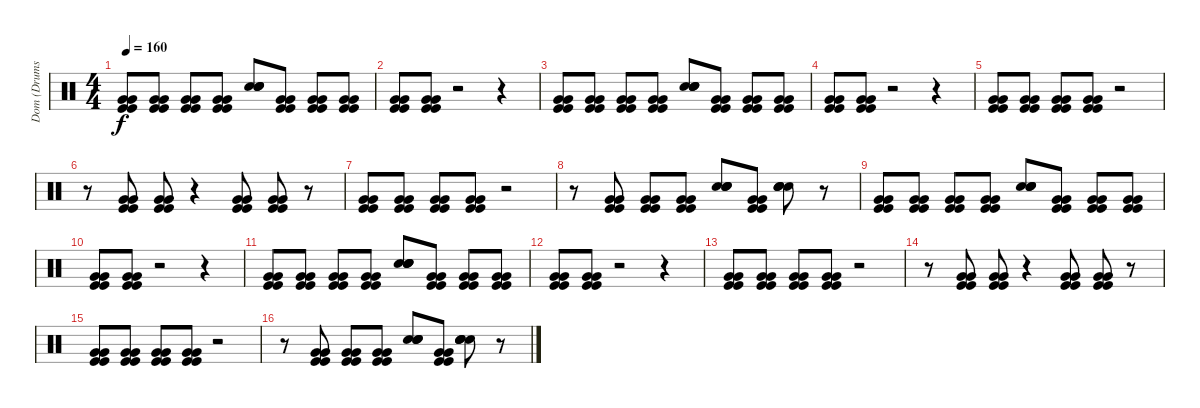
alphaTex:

\track ("Dom (Drums)" "Dom (Drums") {instrument percussion}
\staff {score}
\articulation defaults
\ts (4 4)
\tempo 160
\clef neutral
\ks c
("Very Low Tom (hit)" "Very Low Tom (hit)" "Kick (hit)" "Kick (hit)").8{dy f volume 10} ("Very Low Tom (hit)" "Very Low Tom (hit)" "Kick (hit)" "Kick (hit)").8 ("Very Low Tom (hit)" "Very Low Tom (hit)" "Kick (hit)" "Kick (hit)").8 ("Very Low Tom (hit)" "Very Low Tom (hit)" "Kick (hit)" "Kick (hit)").8 ("Snare (hit) 2" "Snare (hit) 2" "Snare (hit) 2" "Snare (hit) 2").8 ("Very Low Tom (hit)" "Very Low Tom (hit)" "Kick (hit)" "Kick (hit)").8 ("Very Low Tom (hit)" "Very Low Tom (hit)" "Kick (hit)" "Kick (hit)").8 ("Very Low Tom (hit)" "Very Low Tom (hit)" "Kick (hit)" "Kick (hit)").8 |
("Very Low Tom (hit)" "Very Low Tom (hit)" "Kick (hit)" "Kick (hit)").8 ("Very Low Tom (hit)" "Very Low Tom (hit)" "Kick (hit)" "Kick (hit)").8 r.2 r.4 |
("Very Low Tom (hit)" "Very Low Tom (hit)" "Kick (hit)" "Kick (hit)").8 ("Very Low Tom (hit)" "Very Low Tom (hit)" "Kick (hit)" "Kick (hit)").8 ("Very Low Tom (hit)" "Very Low Tom (hit)" "Kick (hit)" "Kick (hit)").8 ("Very Low Tom (hit)" "Very Low Tom (hit)" "Kick (hit)" "Kick (hit)").8 ("Snare (hit) 2" "Snare (hit) 2" "Snare (hit) 2" "Snare (hit) 2").8 ("Very Low Tom (hit)" "Very Low Tom (hit)" "Kick (hit)" "Kick (hit)").8 ("Very Low Tom (hit)" "Very Low Tom (hit)" "Kick (hit)" "Kick (hit)").8 ("Very Low Tom (hit)" "Very Low Tom (hit)" "Kick (hit)" "Kick (hit)").8 |
("Very Low Tom (hit)" "Very Low Tom (hit)" "Kick (hit)" "Kick (hit)").8 ("Very Low Tom (hit)" "Very Low Tom (hit)" "Kick (hit)" "Kick (hit)").8 r.2 r.4 |
("Very Low Tom (hit)" "Very Low Tom (hit)" "Kick (hit)" "Kick (hit)").8 ("Very Low Tom (hit)" "Very Low Tom (hit)" "Kick (hit)" "Kick (hit)").8 ("Very Low Tom (hit)" "Very Low Tom (hit)" "Kick (hit)" "Kick (hit)").8 ("Very Low Tom (hit)" "Very Low Tom (hit)" "Kick (hit)" "Kick (hit)").8 r.2 |
r.8 ("Very Low Tom (hit)" "Very Low Tom (hit)" "Kick (hit)" "Kick (hit)").8 ("Very Low Tom (hit)" "Very Low Tom (hit)" "Kick (hit)" "Kick (hit)").8 r.4 ("Very Low Tom (hit)" "Very Low Tom (hit)" "Kick (hit)" "Kick (hit)").8 ("Very Low Tom (hit)" "Very Low Tom (hit)" "Kick (hit)" "Kick (hit)").8 r.8 |
("Very Low Tom (hit)" "Very Low Tom (hit)" "Kick (hit)" "Kick (hit)").8 ("Very Low Tom (hit)" "Very Low Tom (hit)" "Kick (hit)" "Kick (hit)").8 ("Very Low Tom (hit)" "Very Low Tom (hit)" "Kick (hit)" "Kick (hit)").8 ("Very Low Tom (hit)" "Very Low Tom (hit)" "Kick (hit)" "Kick (hit)").8 r.2 |
r.8 ("Very Low Tom (hit)" "Very Low Tom (hit)" "Kick (hit)" "Kick (hit)").8 ("Very Low Tom (hit)" "Very Low Tom (hit)" "Kick (hit)" "Kick (hit)").8 ("Very Low Tom (hit)" "Very Low Tom (hit)" "Kick (hit)" "Kick (hit)").8 ("Snare (hit) 2" "Snare (hit) 2" "Snare (hit) 2" "Snare (hit) 2").8 ("Very Low Tom (hit)" "Very Low Tom (hit)" "Kick (hit)" "Kick (hit)").8 ("Snare (hit) 2" "Snare (hit) 2" "Snare (hit) 2" "Snare (hit) 2").8 r.8 |
("Very Low Tom (hit)" "Very Low Tom (hit)" "Kick (hit)" "Kick (hit)").8{volume 10} ("Very Low Tom (hit)" "Very Low Tom (hit)" "Kick (hit)" "Kick (hit)").8 ("Very Low Tom (hit)" "Very Low Tom (hit)" "Kick (hit)" "Kick (hit)").8 ("Very Low Tom (hit)" "Very Low Tom (hit)" "Kick (hit)" "Kick (hit)").8 ("Snare (hit) 2" "Snare (hit) 2" "Snare (hit) 2" "Snare (hit) 2").8 ("Very Low Tom (hit)" "Very Low Tom (hit)" "Kick (hit)" "Kick (hit)").8 ("Very Low Tom (hit)" "Very Low Tom (hit)" "Kick (hit)" "Kick (hit)").8 ("Very Low Tom (hit)" "Very Low Tom (hit)" "Kick (hit)" "Kick (hit)").8 |
("Very Low Tom (hit)" "Very Low Tom (hit)" "Kick (hit)" "Kick (hit)").8 ("Very Low Tom (hit)" "Very Low Tom (hit)" "Kick (hit)" "Kick (hit)").8 r.2 r.4 |
("Very Low Tom (hit)" "Very Low Tom (hit)" "Kick (hit)" "Kick (hit)").8 ("Very Low Tom (hit)" "Very Low Tom (hit)" "Kick (hit)" "Kick (hit)").8 ("Very Low Tom (hit)" "Very Low Tom (hit)" "Kick (hit)" "Kick (hit)").8 ("Very Low Tom (hit)" "Very Low Tom (hit)" "Kick (hit)" "Kick (hit)").8 ("Snare (hit) 2" "Snare (hit) 2" "Snare (hit) 2" "Snare (hit) 2").8 ("Very Low Tom (hit)" "Very Low Tom (hit)" "Kick (hit)" "Kick (hit)").8 ("Very Low Tom (hit)" "Very Low Tom (hit)" "Kick (hit)" "Kick (hit)").8 ("Very Low Tom (hit)" "Very Low Tom (hit)" "Kick (hit)" "Kick (hit)").8 |
("Very Low Tom (hit)" "Very Low Tom (hit)" "Kick (hit)" "Kick (hit)").8 ("Very Low Tom (hit)" "Very Low Tom (hit)" "Kick (hit)" "Kick (hit)").8 r.2 r.4 |
("Very Low Tom (hit)" "Very Low Tom (hit)" "Kick (hit)" "Kick (hit)").8 ("Very Low Tom (hit)" "Very Low Tom (hit)" "Kick (hit)" "Kick (hit)").8 ("Very Low Tom (hit)" "Very Low Tom (hit)" "Kick (hit)" "Kick (hit)").8 ("Very Low Tom (hit)" "Very Low Tom (hit)" "Kick (hit)" "Kick (hit)").8 r.2 |
r.8 ("Very Low Tom (hit)" "Very Low Tom (hit)" "Kick (hit)" "Kick (hit)").8 ("Very Low Tom (hit)" "Very Low Tom (hit)" "Kick (hit)" "Kick (hit)").8 r.4 ("Very Low Tom (hit)" "Very Low Tom (hit)" "Kick (hit)" "Kick (hit)").8 ("Very Low Tom (hit)" "Very Low Tom (hit)" "Kick (hit)" "Kick (hit)").8 r.8 |
("Very Low Tom (hit)" "Very Low Tom (hit)" "Kick (hit)" "Kick (hit)").8 ("Very Low Tom (hit)" "Very Low Tom (hit)" "Kick (hit)" "Kick (hit)").8 ("Very Low Tom (hit)" "Very Low Tom (hit)" "Kick (hit)" "Kick (hit)").8 ("Very Low Tom (hit)" "Very Low Tom (hit)" "Kick (hit)" "Kick (hit)").8 r.2 |
r.8 ("Very Low Tom (hit)" "Very Low Tom (hit)" "Kick (hit)" "Kick (hit)").8 ("Very Low Tom (hit)" "Very Low Tom (hit)" "Kick (hit)" "Kick (hit)").8 ("Very Low Tom (hit)" "Very Low Tom (hit)" "Kick (hit)" "Kick (hit)").8 ("Snare (hit) 2" "Snare (hit) 2" "Snare (hit) 2" "Snare (hit) 2").8 ("Very Low Tom (hit)" "Very Low Tom (hit)" "Kick (hit)" "Kick (hit)").8 ("Snare (hit) 2" "Snare (hit) 2" "Snare (hit) 2" "Snare (hit) 2").8 r.8
